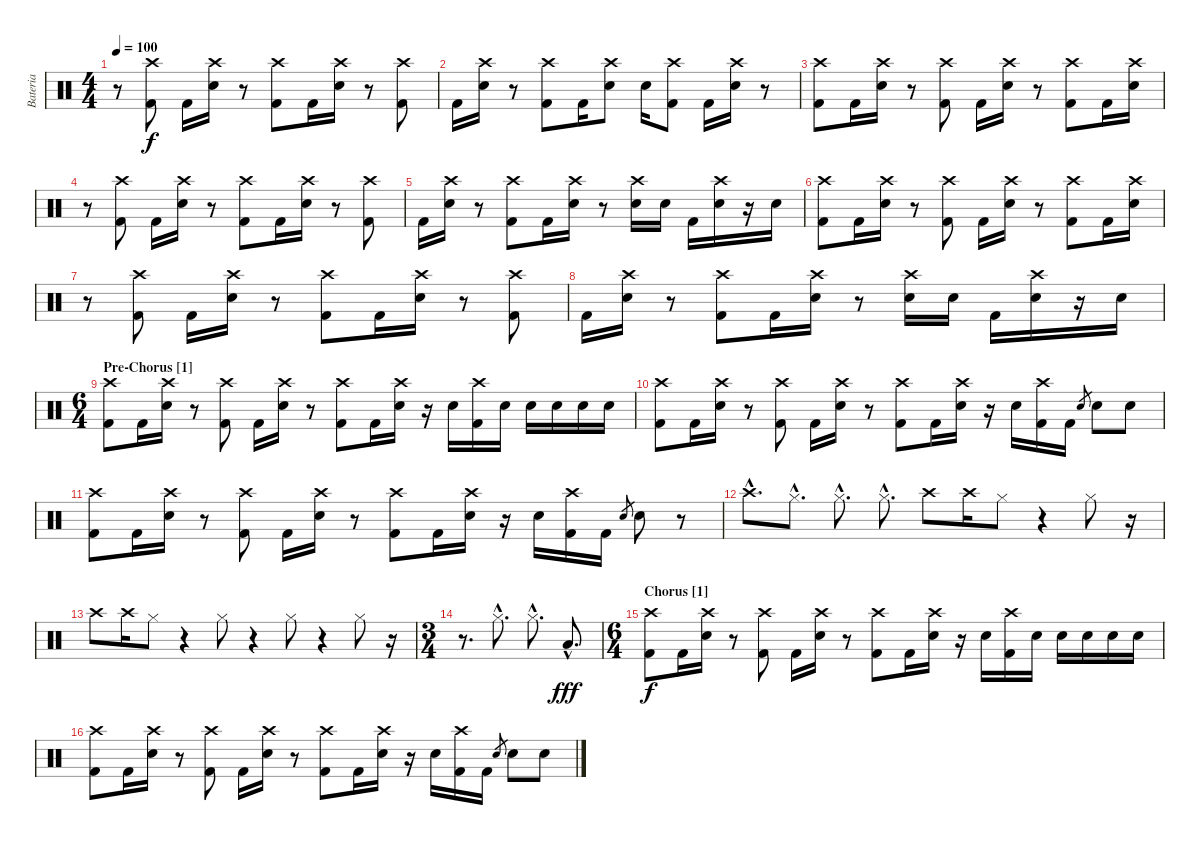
\track ("Bateria" "Bateria") {instrument percussion}
\staff {score}
\articulation defaults
\ts (4 4)
\tempo 100
\clef neutral
\ks c
r.8{dy f} ("Crash high (hit)" "Kick (hit) 2").8 "Kick (hit) 2".16 ("Crash high (hit)" "Electric Snare (hit)").16 r.8 ("Crash high (hit)" "Kick (hit) 2").8 "Kick (hit) 2".16 ("Crash high (hit)" "Electric Snare (hit)").16 r.8 ("Crash high (hit)" "Kick (hit) 2").8 |
"Kick (hit) 2".16 ("Crash high (hit)" "Electric Snare (hit)").16 r.8 ("Crash high (hit)" "Kick (hit) 2").8 "Kick (hit) 2".16 ("Crash high (hit)" "Electric Snare (hit)").8 "Electric Snare (hit)".16 ("Crash high (hit)" "Kick (hit) 2").8 "Kick (hit) 2".16 ("Crash high (hit)" "Electric Snare (hit)").16 r.8 |
("Crash high (hit)" "Kick (hit) 2").8 "Kick (hit) 2".16 ("Crash high (hit)" "Electric Snare (hit)").16 r.8 ("Crash high (hit)" "Kick (hit) 2").8 "Kick (hit) 2".16 ("Crash high (hit)" "Electric Snare (hit)").16 r.8 ("Crash high (hit)" "Kick (hit) 2").8 "Kick (hit) 2".16 ("Crash high (hit)" "Electric Snare (hit)").16 |
r.8 ("Crash high (hit)" "Kick (hit) 2").8 "Kick (hit) 2".16 ("Crash high (hit)" "Electric Snare (hit)").16 r.8 ("Crash high (hit)" "Kick (hit) 2").8 "Kick (hit) 2".16 ("Crash high (hit)" "Electric Snare (hit)").16 r.8 ("Crash high (hit)" "Kick (hit) 2").8 |
"Kick (hit) 2".16 ("Crash high (hit)" "Electric Snare (hit)").16 r.8 ("Crash high (hit)" "Kick (hit) 2").8 "Kick (hit) 2".16 ("Crash high (hit)" "Electric Snare (hit)").16 r.8 ("Crash high (hit)" "Electric Snare (hit)").16 "Electric Snare (hit)".16 "Kick (hit) 2".16 ("Crash high (hit)" "Electric Snare (hit)").16 r.16 "Electric Snare (hit)".16 |
("Crash high (hit)" "Kick (hit) 2").8 "Kick (hit) 2".16 ("Crash high (hit)" "Electric Snare (hit)").16 r.8 ("Crash high (hit)" "Kick (hit) 2").8 "Kick (hit) 2".16 ("Crash high (hit)" "Electric Snare (hit)").16 r.8 ("Crash high (hit)" "Kick (hit) 2").8 "Kick (hit) 2".16 ("Crash high (hit)" "Electric Snare (hit)").16 |
r.8 ("Crash high (hit)" "Kick (hit) 2").8 "Kick (hit) 2".16 ("Crash high (hit)" "Electric Snare (hit)").16 r.8 ("Crash high (hit)" "Kick (hit) 2").8 "Kick (hit) 2".16 ("Crash high (hit)" "Electric Snare (hit)").16 r.8 ("Crash high (hit)" "Kick (hit) 2").8 |
"Kick (hit) 2".16 ("Crash high (hit)" "Electric Snare (hit)").16 r.8 ("Crash high (hit)" "Kick (hit) 2").8 "Kick (hit) 2".16 ("Crash high (hit)" "Electric Snare (hit)").16 r.8 ("Crash high (hit)" "Electric Snare (hit)").16 "Electric Snare (hit)".16 "Kick (hit) 2".16 ("Crash high (hit)" "Electric Snare (hit)").16 r.16 "Electric Snare (hit)".16 |
\ts (6 4)
\section ("" "Pre-Chorus [1]")
("Crash high (hit)" "Kick (hit) 2").8 "Kick (hit) 2".16 ("Crash high (hit)" "Electric Snare (hit)").16 r.8 ("Crash high (hit)" "Kick (hit) 2").8 "Kick (hit) 2".16 ("Crash high (hit)" "Electric Snare (hit)").16 r.8 ("Crash high (hit)" "Kick (hit) 2").8 "Kick (hit) 2".16 ("Crash high (hit)" "Electric Snare (hit)").16 r.16 "Electric Snare (hit)".16 ("Crash high (hit)" "Kick (hit) 2").16 "Electric Snare (hit)".16 "Electric Snare (hit)".16 "Electric Snare (hit)".16 "Electric Snare (hit)".16 "Electric Snare (hit)".16 |
("Crash high (hit)" "Kick (hit) 2").8 "Kick (hit) 2".16 ("Crash high (hit)" "Electric Snare (hit)").16 r.8 ("Crash high (hit)" "Kick (hit) 2").8 "Kick (hit) 2".16 ("Crash high (hit)" "Electric Snare (hit)").16 r.8 ("Crash high (hit)" "Kick (hit) 2").8 "Kick (hit) 2".16 ("Crash high (hit)" "Electric Snare (hit)").16 r.16 "Electric Snare (hit)".16 ("Crash high (hit)" "Kick (hit) 2").16 "Kick (hit) 2".16 "Electric Snare (hit)".8{gr} "Electric Snare (hit)".8 "Electric Snare (hit)".8 |
("Crash high (hit)" "Kick (hit) 2").8 "Kick (hit) 2".16 ("Crash high (hit)" "Electric Snare (hit)").16 r.8 ("Crash high (hit)" "Kick (hit) 2").8 "Kick (hit) 2".16 ("Crash high (hit)" "Electric Snare (hit)").16 r.8 ("Crash high (hit)" "Kick (hit) 2").8 "Kick (hit) 2".16 ("Crash high (hit)" "Electric Snare (hit)").16 r.16 "Electric Snare (hit)".16 ("Crash high (hit)" "Kick (hit) 2").16 "Kick (hit) 2".16 "Electric Snare (hit)".8{gr} "Electric Snare (hit)".8 r.8 |
"Crash high (hit)"{hac}.8{d} "Hi-Hat (closed)"{hac}.8{d} "Hi-Hat (closed)"{hac}.8{d} "Hi-Hat (closed)"{hac}.8{d} "Crash high (hit)".8 "Crash high (hit)".16 "Hi-Hat (closed)".8 r.4 "Hi-Hat (closed)".8 r.16 |
"Crash high (hit)".8 "Crash high (hit)".16 "Hi-Hat (closed)".8 r.4 "Hi-Hat (closed)".8 r.4 "Hi-Hat (closed)".8 r.4 "Hi-Hat (closed)".8 r.16 |
\ts (3 4)
r.8{d} "Hi-Hat (closed)"{hac}.8{d} "Hi-Hat (closed)"{hac}.8{d} "Low Tom (hit)"{hac}.8{d dy fff} |
\ts (6 4)
\section ("" "Chorus [1]")
("Crash high (hit)" "Kick (hit) 2").8{dy f} "Kick (hit) 2".16 ("Crash high (hit)" "Electric Snare (hit)").16 r.8 ("Crash high (hit)" "Kick (hit) 2").8 "Kick (hit) 2".16 ("Crash high (hit)" "Electric Snare (hit)").16 r.8 ("Crash high (hit)" "Kick (hit) 2").8 "Kick (hit) 2".16 ("Crash high (hit)" "Electric Snare (hit)").16 r.16 "Electric Snare (hit)".16 ("Crash high (hit)" "Kick (hit) 2").16 "Electric Snare (hit)".16 "Electric Snare (hit)".16 "Electric Snare (hit)".16 "Electric Snare (hit)".16 "Electric Snare (hit)".16 |
("Crash high (hit)" "Kick (hit) 2").8 "Kick (hit) 2".16 ("Crash high (hit)" "Electric Snare (hit)").16 r.8 ("Crash high (hit)" "Kick (hit) 2").8 "Kick (hit) 2".16 ("Crash high (hit)" "Electric Snare (hit)").16 r.8 ("Crash high (hit)" "Kick (hit) 2").8 "Kick (hit) 2".16 ("Crash high (hit)" "Electric Snare (hit)").16 r.16 "Electric Snare (hit)".16 ("Crash high (hit)" "Kick (hit) 2").16 "Kick (hit) 2".16 "Electric Snare (hit)".8{gr} "Electric Snare (hit)".8 "Electric Snare (hit)".8
